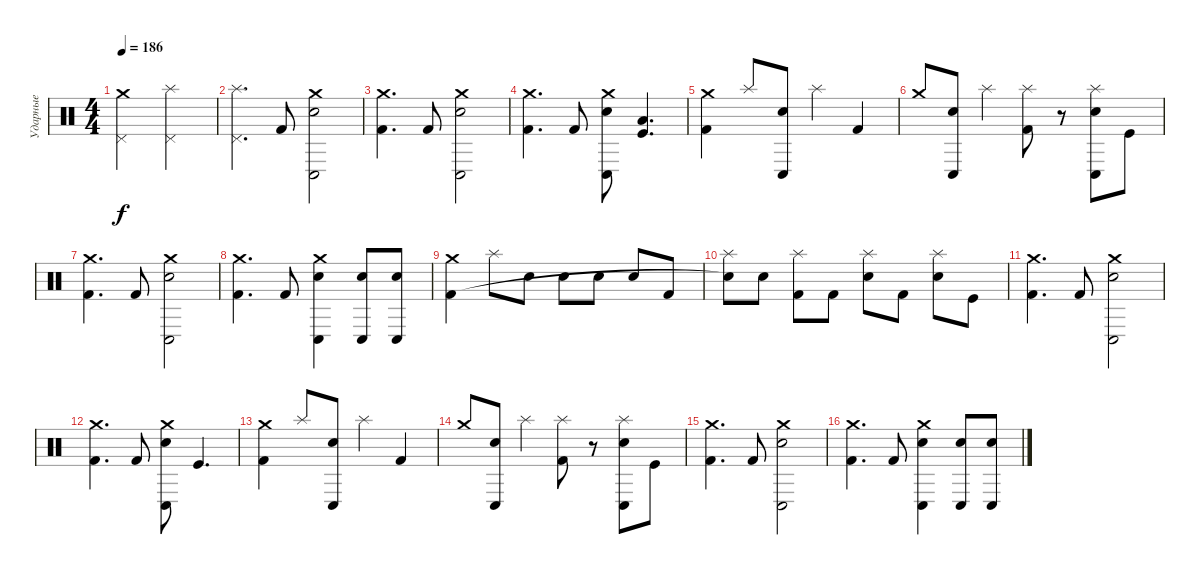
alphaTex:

\track ("Ударные" "Ударные") {instrument percussion}
\staff {score}
\articulation defaults
\ts (4 4)
\tempo 186
\clef neutral
\ks c
("Crash medium (hit)" "Pedal Hi-Hat (hit)").2{dy f} ("Splash (hit)" "Pedal Hi-Hat (hit)").2 |
("Splash (hit)" "Pedal Hi-Hat (hit)").4{d} "Kick (hit) 2".8 ("Crash medium (hit)" "Conga low (hit)" "Electric Snare (hit)").2 |
("Crash medium (hit)" "Kick (hit) 2").4{d} "Kick (hit) 2".8 ("Crash medium (hit)" "Conga low (hit)" "Electric Snare (hit)").2 |
("Crash medium (hit)" "Kick (hit) 2").4{d} "Kick (hit) 2".8 ("Crash medium (hit)" "Conga low (hit)" "Electric Snare (hit)").8 ("Low Floor Tom (hit)" "Kick (hit)").4{d} |
("Crash medium (hit)" "Kick (hit) 2").4 "Splash (hit)".8 ("Conga low (hit)" "Electric Snare (hit)").8 "Splash (hit)".4 "Kick (hit) 2".4 |
"Crash medium (hit)".8 ("Conga low (hit)" "Electric Snare (hit)").8 "Splash (hit)".4 ("Splash (hit)" "Kick (hit) 2").8 r.8 ("Splash (hit)" "Conga low (hit)" "Electric Snare (hit)").8 "Kick (hit)".8 |
("Crash medium (hit)" "Kick (hit) 2").4{d} "Kick (hit) 2".8 ("Crash medium (hit)" "Conga low (hit)" "Electric Snare (hit)").2 |
("Crash medium (hit)" "Kick (hit) 2").4{d} "Kick (hit) 2".8 ("Crash medium (hit)" "Conga low (hit)" "Electric Snare (hit)").4 ("Conga low (hit)" "Electric Snare (hit)").8 ("Conga low (hit)" "Electric Snare (hit)").8 |
("Crash medium (hit)" "Kick (hit) 2").4 "Splash (hit)".8 "Electric Snare (hit)".8 "Electric Snare (hit)".8 "Electric Snare (hit)".8 "Electric Snare (hit)".8 "Kick (hit) 2".8 |
("Splash (hit)" "Snare (hit)"{t}).8 "Electric Snare (hit)".8 ("Splash (hit)" "Kick (hit) 2").8 "Kick (hit) 2".8 ("Splash (hit)" "Electric Snare (hit)").8 "Kick (hit) 2".8 ("Splash (hit)" "Electric Snare (hit)").8 "Kick (hit)".8 |
("Crash medium (hit)" "Kick (hit) 2").4{d} "Kick (hit) 2".8 ("Crash medium (hit)" "Conga low (hit)" "Electric Snare (hit)").2 |
("Crash medium (hit)" "Kick (hit) 2").4{d} "Kick (hit) 2".8 ("Crash medium (hit)" "Conga low (hit)" "Electric Snare (hit)").8 "Kick (hit)".4{d} |
("Crash medium (hit)" "Kick (hit) 2").4 "Splash (hit)".8 ("Conga low (hit)" "Electric Snare (hit)").8 "Splash (hit)".4 "Kick (hit) 2".4 |
"Crash medium (hit)".8 ("Conga low (hit)" "Electric Snare (hit)").8 "Splash (hit)".4 ("Splash (hit)" "Kick (hit) 2").8 r.8 ("Splash (hit)" "Conga low (hit)" "Electric Snare (hit)").8 "Kick (hit)".8 |
("Crash medium (hit)" "Kick (hit) 2").4{d} "Kick (hit) 2".8 ("Crash medium (hit)" "Conga low (hit)" "Electric Snare (hit)").2 |
("Crash medium (hit)" "Kick (hit) 2").4{d} "Kick (hit) 2".8 ("Crash medium (hit)" "Conga low (hit)" "Electric Snare (hit)").4 ("Conga low (hit)" "Electric Snare (hit)").8 ("Conga low (hit)" "Electric Snare (hit)").8
